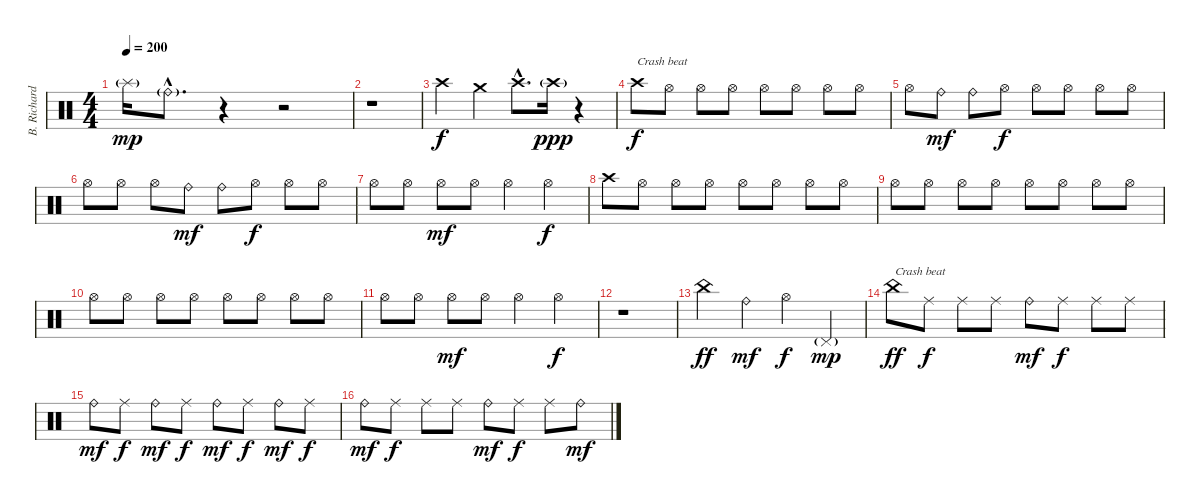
\track ("B. Richardson Drums" "B. Richard") {instrument percussion}
\staff {score}
\articulation defaults
\ts (4 4)
\tempo 200
\clef neutral
\ks c "Splash (hit)"{g}.16{dy mp} "Ride (bell)"{g hac}.8{d}
r.4 r.2 |
r.1 |
"Crash high (hit)".4{dy f} "Crash medium (hit)".4 "Crash high (hit)"{hac}.8{d} "Crash high (hit)"{g}.16{dy ppp} r.4 |
"Crash high (hit)".8{txt "Crash beat" dy f} "Hi-Hat (open)".8 "Hi-Hat (open)".8 "Hi-Hat (open)".8 "Hi-Hat (open)".8 "Hi-Hat (open)".8 "Hi-Hat (open)".8 "Hi-Hat (open)".8 |
"Hi-Hat (open)".8 "Ride (bell)".8{dy mf} "Ride (bell)".8 "Hi-Hat (open)".8{dy f} "Hi-Hat (open)".8 "Hi-Hat (open)".8 "Hi-Hat (open)".8 "Hi-Hat (open)".8 |
"Hi-Hat (open)".8 "Hi-Hat (open)".8 "Hi-Hat (open)".8 "Ride (bell)".8{dy mf} "Ride (bell)".8 "Hi-Hat (open)".8{dy f} "Hi-Hat (open)".8 "Hi-Hat (open)".8 |
"Hi-Hat (open)".8 "Hi-Hat (open)".8 "Hi-Hat (open)".8{dy mf} "Hi-Hat (open)".8 "Hi-Hat (open)".4 "Hi-Hat (open)".4{dy f} |
"Crash high (hit)".8 "Hi-Hat (open)".8 "Hi-Hat (open)".8 "Hi-Hat (open)".8 "Hi-Hat (open)".8 "Hi-Hat (open)".8 "Hi-Hat (open)".8 "Hi-Hat (open)".8 |
"Hi-Hat (open)".8 "Hi-Hat (open)".8 "Hi-Hat (open)".8 "Hi-Hat (open)".8 "Hi-Hat (open)".8 "Hi-Hat (open)".8 "Hi-Hat (open)".8 "Hi-Hat (open)".8 |
"Hi-Hat (open)".8 "Hi-Hat (open)".8 "Hi-Hat (open)".8 "Hi-Hat (open)".8 "Hi-Hat (open)".8 "Hi-Hat (open)".8 "Hi-Hat (open)".8 "Hi-Hat (open)".8 |
"Hi-Hat (open)".8 "Hi-Hat (open)".8 "Hi-Hat (open)".8{dy mf} "Hi-Hat (open)".8 "Hi-Hat (open)".4 "Hi-Hat (open)".4{dy f} |
r.1 |
"China (hit)".4{dy ff} "Ride (bell)".4{dy mf} "Hi-Hat (open)".4{dy f} "Pedal Hi-Hat (hit)"{g}.4{dy mp} |
"China (hit)".8{txt "Crash beat" dy ff} "Ride (middle)".8{dy f} "Ride (middle)".8 "Ride (middle)".8 "Ride (bell)".8{dy mf} "Ride (middle)".8{dy f} "Ride (middle)".8 "Ride (middle)".8 |
"Ride (bell)".8{dy mf} "Ride (middle)".8{dy f} "Ride (bell)".8{dy mf} "Ride (middle)".8{dy f} "Ride (bell)".8{dy mf} "Ride (middle)".8{dy f} "Ride (bell)".8{dy mf} "Ride (middle)".8{dy f} |
"Ride (bell)".8{dy mf} "Ride (middle)".8{dy f} "Ride (middle)".8 "Ride (middle)".8 "Ride (bell)".8{dy mf} "Ride (middle)".8{dy f} "Ride (middle)".8 "Ride (bell)".8{dy mf}
